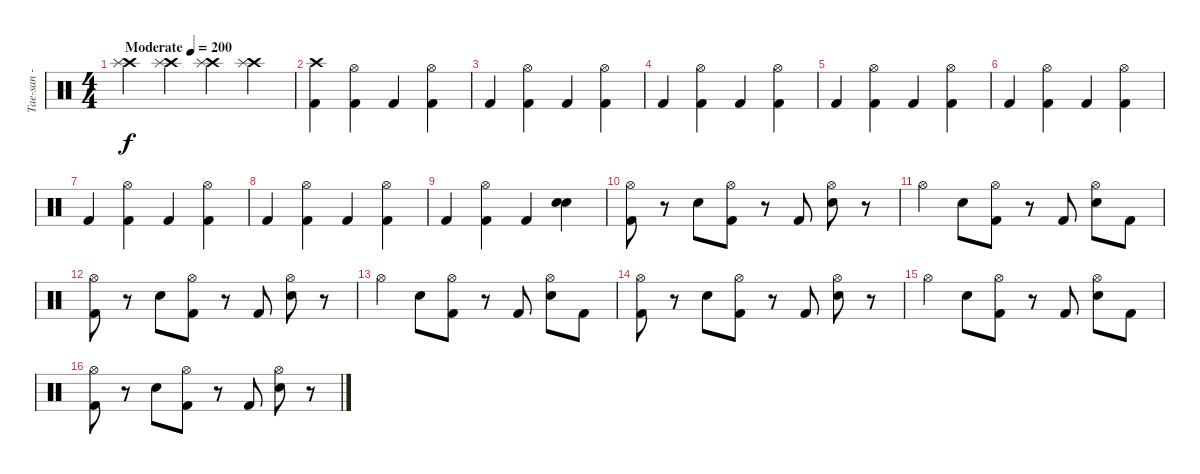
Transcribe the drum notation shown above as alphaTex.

\track ("Tae-san - Drums" "Tae-san - ") {instrument percussion}
\staff {score}
\articulation defaults
\ts (4 4)
\tempo (200 "Moderate")
\clef neutral
\ks c
("Crash high (hit)" "Splash (hit)").4{dy f} ("Crash high (hit)" "Splash (hit)").4 ("Crash high (hit)" "Splash (hit)").4 ("Crash high (hit)" "Splash (hit)").4 |
("Kick (hit) 2" "Crash high (hit)").4 ("Kick (hit) 2" "Hi-Hat (open)").4 "Kick (hit) 2".4 ("Kick (hit) 2" "Hi-Hat (open)").4 |
"Kick (hit) 2".4 ("Kick (hit) 2" "Hi-Hat (open)").4 "Kick (hit) 2".4 ("Kick (hit) 2" "Hi-Hat (open)").4 |
"Kick (hit) 2".4 ("Kick (hit) 2" "Hi-Hat (open)").4 "Kick (hit) 2".4 ("Kick (hit) 2" "Hi-Hat (open)").4 |
"Kick (hit) 2".4 ("Kick (hit) 2" "Hi-Hat (open)").4 "Kick (hit) 2".4 ("Kick (hit) 2" "Hi-Hat (open)").4 |
"Kick (hit) 2".4 ("Kick (hit) 2" "Hi-Hat (open)").4 "Kick (hit) 2".4 ("Kick (hit) 2" "Hi-Hat (open)").4 |
"Kick (hit) 2".4 ("Kick (hit) 2" "Hi-Hat (open)").4 "Kick (hit) 2".4 ("Kick (hit) 2" "Hi-Hat (open)").4 |
"Kick (hit) 2".4 ("Kick (hit) 2" "Hi-Hat (open)").4 "Kick (hit) 2".4 ("Kick (hit) 2" "Hi-Hat (open)").4 |
"Kick (hit) 2".4 ("Kick (hit) 2" "Hi-Hat (open)").4 "Kick (hit) 2".4 ("Electric Snare (hit)" "Snare (hit) 2").4 |
("Kick (hit) 2" "Hi-Hat (open)").8 r.8 "Electric Snare (hit)".8 ("Kick (hit) 2" "Hi-Hat (open)").8 r.8 "Kick (hit) 2".8 ("Electric Snare (hit)" "Hi-Hat (open)").8 r.8 |
"Hi-Hat (open)".4 "Electric Snare (hit)".8 ("Kick (hit) 2" "Hi-Hat (open)").8 r.8 "Kick (hit) 2".8 ("Electric Snare (hit)" "Hi-Hat (open)").8 "Kick (hit) 2".8 |
("Kick (hit) 2" "Hi-Hat (open)").8 r.8 "Electric Snare (hit)".8 ("Kick (hit) 2" "Hi-Hat (open)").8 r.8 "Kick (hit) 2".8 ("Electric Snare (hit)" "Hi-Hat (open)").8 r.8 |
"Hi-Hat (open)".4 "Electric Snare (hit)".8 ("Kick (hit) 2" "Hi-Hat (open)").8 r.8 "Kick (hit) 2".8 ("Electric Snare (hit)" "Hi-Hat (open)").8 "Kick (hit) 2".8 |
("Kick (hit) 2" "Hi-Hat (open)").8 r.8 "Electric Snare (hit)".8 ("Kick (hit) 2" "Hi-Hat (open)").8 r.8 "Kick (hit) 2".8 ("Electric Snare (hit)" "Hi-Hat (open)").8 r.8 |
"Hi-Hat (open)".4 "Electric Snare (hit)".8 ("Kick (hit) 2" "Hi-Hat (open)").8 r.8 "Kick (hit) 2".8 ("Electric Snare (hit)" "Hi-Hat (open)").8 "Kick (hit) 2".8 |
("Kick (hit) 2" "Hi-Hat (open)").8 r.8 "Electric Snare (hit)".8 ("Kick (hit) 2" "Hi-Hat (open)").8 r.8 "Kick (hit) 2".8 ("Electric Snare (hit)" "Hi-Hat (open)").8 r.8
